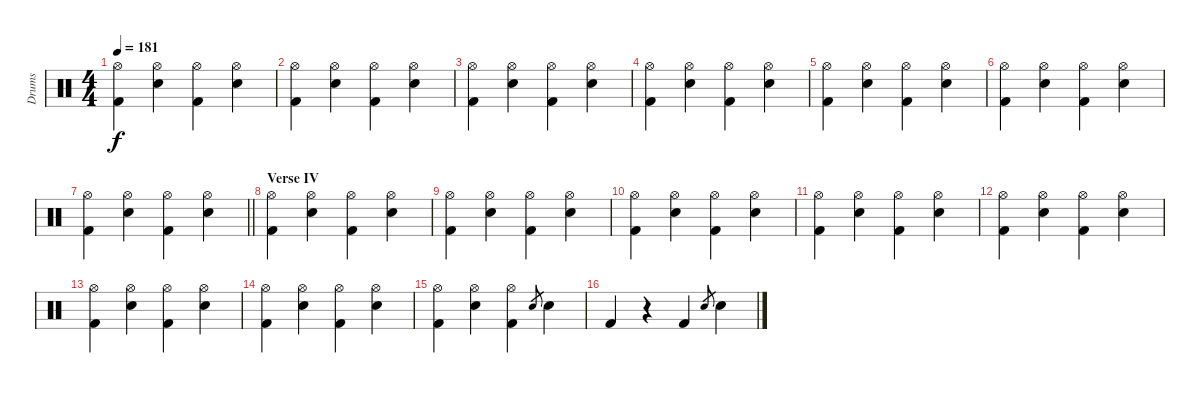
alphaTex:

\track ("Drums" "Drums") {instrument percussion}
\staff {score}
\articulation defaults
\ts (4 4)
\tempo 181
\clef neutral
\ks c
("Hi-Hat (open)" "Kick (hit) 2").4{dy f} ("Hi-Hat (open)" "Snare (hit) 2").4 ("Hi-Hat (open)" "Kick (hit) 2").4 ("Hi-Hat (open)" "Snare (hit) 2").4 |
("Hi-Hat (open)" "Kick (hit) 2").4 ("Hi-Hat (open)" "Snare (hit) 2").4 ("Hi-Hat (open)" "Kick (hit) 2").4 ("Hi-Hat (open)" "Snare (hit) 2").4 |
("Hi-Hat (open)" "Kick (hit) 2").4 ("Hi-Hat (open)" "Snare (hit) 2").4 ("Hi-Hat (open)" "Kick (hit) 2").4 ("Hi-Hat (open)" "Snare (hit) 2").4 |
("Hi-Hat (open)" "Kick (hit) 2").4 ("Hi-Hat (open)" "Snare (hit) 2").4 ("Hi-Hat (open)" "Kick (hit) 2").4 ("Hi-Hat (open)" "Snare (hit) 2").4 |
("Hi-Hat (open)" "Kick (hit) 2").4 ("Hi-Hat (open)" "Snare (hit) 2").4 ("Hi-Hat (open)" "Kick (hit) 2").4 ("Hi-Hat (open)" "Snare (hit) 2").4 |
("Hi-Hat (open)" "Kick (hit) 2").4 ("Hi-Hat (open)" "Snare (hit) 2").4 ("Hi-Hat (open)" "Kick (hit) 2").4 ("Hi-Hat (open)" "Snare (hit) 2").4 |
\barLineRight lightlight
("Hi-Hat (open)" "Kick (hit) 2").4 ("Hi-Hat (open)" "Snare (hit) 2").4 ("Hi-Hat (open)" "Kick (hit) 2").4 ("Hi-Hat (open)" "Snare (hit) 2").4 |
\section ("" "Verse IV")
("Hi-Hat (open)" "Kick (hit) 2").4 ("Hi-Hat (open)" "Snare (hit) 2").4 ("Hi-Hat (open)" "Kick (hit) 2").4 ("Hi-Hat (open)" "Snare (hit) 2").4 |
("Hi-Hat (open)" "Kick (hit) 2").4 ("Hi-Hat (open)" "Snare (hit) 2").4 ("Hi-Hat (open)" "Kick (hit) 2").4 ("Hi-Hat (open)" "Snare (hit) 2").4 |
("Hi-Hat (open)" "Kick (hit) 2").4 ("Hi-Hat (open)" "Snare (hit) 2").4 ("Hi-Hat (open)" "Kick (hit) 2").4 ("Hi-Hat (open)" "Snare (hit) 2").4 |
("Hi-Hat (open)" "Kick (hit) 2").4 ("Hi-Hat (open)" "Snare (hit) 2").4 ("Hi-Hat (open)" "Kick (hit) 2").4 ("Hi-Hat (open)" "Snare (hit) 2").4 |
("Hi-Hat (open)" "Kick (hit) 2").4 ("Hi-Hat (open)" "Snare (hit) 2").4 ("Hi-Hat (open)" "Kick (hit) 2").4 ("Hi-Hat (open)" "Snare (hit) 2").4 |
("Hi-Hat (open)" "Kick (hit) 2").4 ("Hi-Hat (open)" "Snare (hit) 2").4 ("Hi-Hat (open)" "Kick (hit) 2").4 ("Hi-Hat (open)" "Snare (hit) 2").4 |
("Hi-Hat (open)" "Kick (hit) 2").4 ("Hi-Hat (open)" "Snare (hit) 2").4 ("Hi-Hat (open)" "Kick (hit) 2").4 ("Hi-Hat (open)" "Snare (hit) 2").4 |
("Hi-Hat (open)" "Kick (hit) 2").4 ("Hi-Hat (open)" "Snare (hit) 2").4 ("Hi-Hat (open)" "Kick (hit) 2").4 "Snare (hit) 2".8{gr} "Snare (hit) 2".4 |
"Kick (hit) 2".4 r.4 "Kick (hit) 2".4 "Snare (hit) 2".8{gr} "Snare (hit) 2".4
